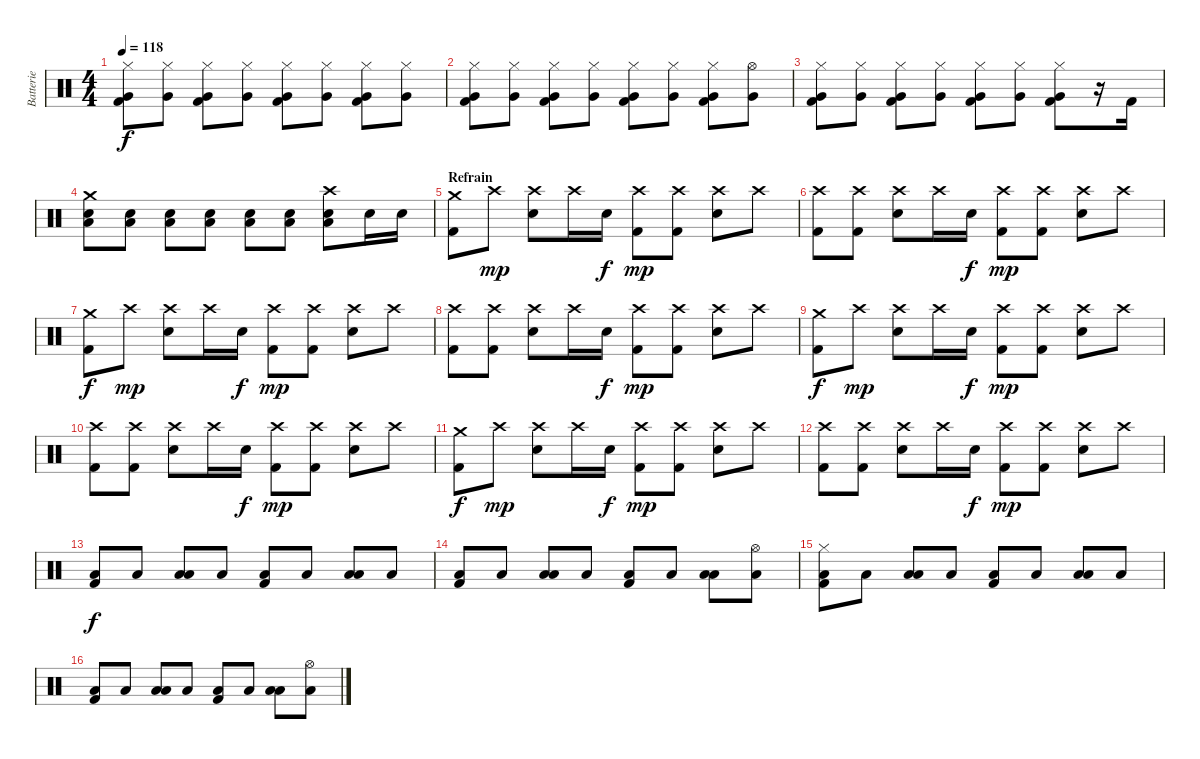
\track ("Batterie" "Batterie") {instrument percussion}
\staff {score}
\articulation defaults
\ts (4 4)
\tempo 118
\clef neutral
\ks c
("Hi-Hat (closed)" "Very Low Tom (hit)" "Kick (hit) 2").8{dy f} ("Hi-Hat (closed)" "Very Low Tom (hit)").8 ("Hi-Hat (closed)" "Very Low Tom (hit)" "Kick (hit) 2").8 ("Hi-Hat (closed)" "Very Low Tom (hit)").8 ("Hi-Hat (closed)" "Very Low Tom (hit)" "Kick (hit) 2").8 ("Hi-Hat (closed)" "Very Low Tom (hit)").8 ("Hi-Hat (closed)" "Very Low Tom (hit)" "Kick (hit) 2").8 ("Hi-Hat (closed)" "Very Low Tom (hit)").8 |
("Hi-Hat (closed)" "Very Low Tom (hit)" "Kick (hit) 2").8 ("Hi-Hat (closed)" "Very Low Tom (hit)").8 ("Hi-Hat (closed)" "Very Low Tom (hit)" "Kick (hit) 2").8 ("Hi-Hat (closed)" "Very Low Tom (hit)").8 ("Hi-Hat (closed)" "Very Low Tom (hit)" "Kick (hit) 2").8 ("Hi-Hat (closed)" "Very Low Tom (hit)").8 ("Hi-Hat (closed)" "Very Low Tom (hit)" "Kick (hit) 2").8 ("Hi-Hat (open)" "Very Low Tom (hit)").8 |
("Hi-Hat (closed)" "Very Low Tom (hit)" "Kick (hit) 2").8 ("Hi-Hat (closed)" "Very Low Tom (hit)").8 ("Hi-Hat (closed)" "Very Low Tom (hit)" "Kick (hit) 2").8 ("Hi-Hat (closed)" "Very Low Tom (hit)").8 ("Hi-Hat (closed)" "Very Low Tom (hit)" "Kick (hit) 2").8 ("Hi-Hat (closed)" "Very Low Tom (hit)").8 ("Hi-Hat (closed)" "Very Low Tom (hit)" "Kick (hit) 2").8 r.16 "Kick (hit) 2".16 |
("Crash medium (hit)" "Snare (hit) 2" "Low Tom (hit)").8 ("Snare (hit) 2" "Low Tom (hit)").8 ("Snare (hit) 2" "Low Tom (hit)").8 ("Snare (hit) 2" "Low Tom (hit)").8 ("Snare (hit) 2" "Low Tom (hit)").8 ("Snare (hit) 2" "Low Tom (hit)").8 ("Crash high (hit)" "Snare (hit) 2" "Low Tom (hit)").8 "Snare (hit) 2".16 "Snare (hit) 2".16 |
\section ("" "Refrain")
("Crash medium (hit)" "Kick (hit) 2").8 "Crash high (hit)".8{dy mp} ("Crash high (hit)" "Snare (hit) 2").8 "Crash high (hit)".16 "Snare (hit) 2".16{dy f} ("Crash high (hit)" "Kick (hit) 2").8{dy mp} ("Crash high (hit)" "Kick (hit) 2").8 ("Crash high (hit)" "Snare (hit) 2").8 "Crash high (hit)".8 |
("Crash high (hit)" "Kick (hit) 2").8 ("Crash high (hit)" "Kick (hit) 2").8 ("Crash high (hit)" "Snare (hit) 2").8 "Crash high (hit)".16 "Snare (hit) 2".16{dy f} ("Crash high (hit)" "Kick (hit) 2").8{dy mp} ("Crash high (hit)" "Kick (hit) 2").8 ("Crash high (hit)" "Snare (hit) 2").8 "Crash high (hit)".8 |
("Crash medium (hit)" "Kick (hit) 2").8{dy f} "Crash high (hit)".8{dy mp} ("Crash high (hit)" "Snare (hit) 2").8 "Crash high (hit)".16 "Snare (hit) 2".16{dy f} ("Crash high (hit)" "Kick (hit) 2").8{dy mp} ("Crash high (hit)" "Kick (hit) 2").8 ("Crash high (hit)" "Snare (hit) 2").8 "Crash high (hit)".8 |
("Crash high (hit)" "Kick (hit) 2").8 ("Crash high (hit)" "Kick (hit) 2").8 ("Crash high (hit)" "Snare (hit) 2").8 "Crash high (hit)".16 "Snare (hit) 2".16{dy f} ("Crash high (hit)" "Kick (hit) 2").8{dy mp} ("Crash high (hit)" "Kick (hit) 2").8 ("Crash high (hit)" "Snare (hit) 2").8 "Crash high (hit)".8 |
("Crash medium (hit)" "Kick (hit) 2").8{dy f} "Crash high (hit)".8{dy mp} ("Crash high (hit)" "Snare (hit) 2").8 "Crash high (hit)".16 "Snare (hit) 2".16{dy f} ("Crash high (hit)" "Kick (hit) 2").8{dy mp} ("Crash high (hit)" "Kick (hit) 2").8 ("Crash high (hit)" "Snare (hit) 2").8 "Crash high (hit)".8 |
("Crash high (hit)" "Kick (hit) 2").8 ("Crash high (hit)" "Kick (hit) 2").8 ("Crash high (hit)" "Snare (hit) 2").8 "Crash high (hit)".16 "Snare (hit) 2".16{dy f} ("Crash high (hit)" "Kick (hit) 2").8{dy mp} ("Crash high (hit)" "Kick (hit) 2").8 ("Crash high (hit)" "Snare (hit) 2").8 "Crash high (hit)".8 |
("Crash medium (hit)" "Kick (hit) 2").8{dy f} "Crash high (hit)".8{dy mp} ("Crash high (hit)" "Snare (hit) 2").8 "Crash high (hit)".16 "Snare (hit) 2".16{dy f} ("Crash high (hit)" "Kick (hit) 2").8{dy mp} ("Crash high (hit)" "Kick (hit) 2").8 ("Crash high (hit)" "Snare (hit) 2").8 "Crash high (hit)".8 |
("Crash high (hit)" "Kick (hit) 2").8 ("Crash high (hit)" "Kick (hit) 2").8 ("Crash high (hit)" "Snare (hit) 2").8 "Crash high (hit)".16 "Snare (hit) 2".16{dy f} ("Crash high (hit)" "Kick (hit) 2").8{dy mp} ("Crash high (hit)" "Kick (hit) 2").8 ("Crash high (hit)" "Snare (hit) 2").8 "Crash high (hit)".8 |
("Low Floor Tom (hit)" "Kick (hit) 2").8{dy f} "Low Floor Tom (hit)".8 ("Low Tom (hit)" "Low Floor Tom (hit)").8 "Low Floor Tom (hit)".8 ("Low Floor Tom (hit)" "Kick (hit) 2").8 "Low Floor Tom (hit)".8 ("Low Tom (hit)" "Low Floor Tom (hit)").8 "Low Floor Tom (hit)".8 |
("Low Floor Tom (hit)" "Kick (hit) 2").8 "Low Floor Tom (hit)".8 ("Low Tom (hit)" "Low Floor Tom (hit)").8 "Low Floor Tom (hit)".8 ("Low Floor Tom (hit)" "Kick (hit) 2").8 "Low Floor Tom (hit)".8 ("Low Tom (hit)" "Low Floor Tom (hit)").8 ("Hi-Hat (open)" "Low Floor Tom (hit)").8 |
("Hi-Hat (closed)" "Low Floor Tom (hit)" "Kick (hit) 2").8 "Low Floor Tom (hit)".8 ("Low Tom (hit)" "Low Floor Tom (hit)").8 "Low Floor Tom (hit)".8 ("Low Floor Tom (hit)" "Kick (hit) 2").8 "Low Floor Tom (hit)".8 ("Low Tom (hit)" "Low Floor Tom (hit)").8 "Low Floor Tom (hit)".8 |
("Low Floor Tom (hit)" "Kick (hit) 2").8 "Low Floor Tom (hit)".8 ("Low Tom (hit)" "Low Floor Tom (hit)").8 "Low Floor Tom (hit)".8 ("Low Floor Tom (hit)" "Kick (hit) 2").8 "Low Floor Tom (hit)".8 ("Low Tom (hit)" "Low Floor Tom (hit)").8 ("Hi-Hat (open)" "Low Floor Tom (hit)").8
